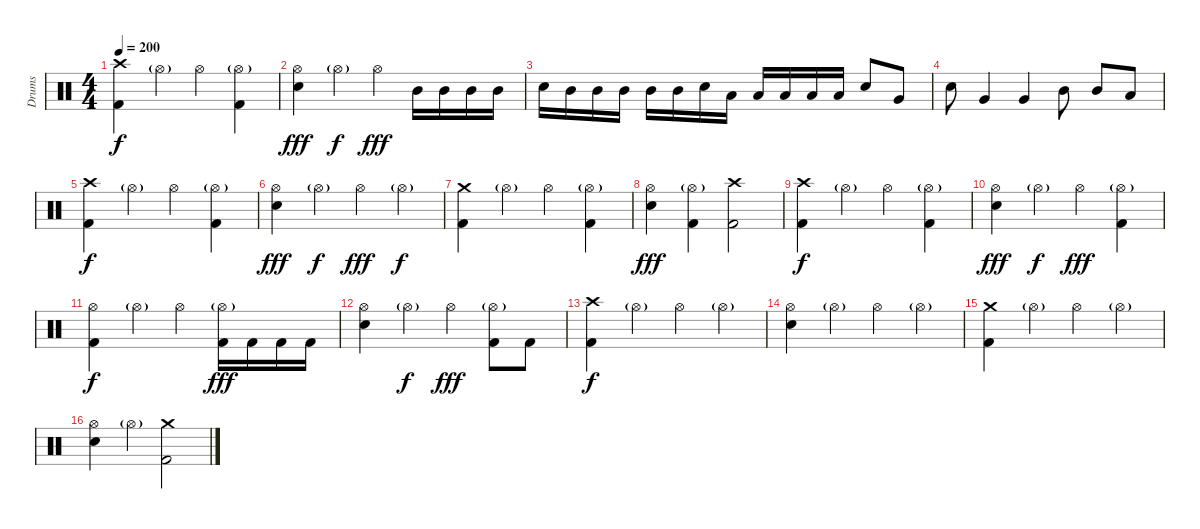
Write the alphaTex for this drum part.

\track ("Drums" "Drums") {instrument percussion}
\staff {score}
\articulation defaults
\ts (4 4)
\tempo 200
\clef neutral
\ks c
("Crash high (hit)" "Kick (hit) 2").4{dy f} "Hi-Hat (open)"{g}.4 "Hi-Hat (open)".4 ("Hi-Hat (open)"{g} "Kick (hit) 2").4 |
("Hi-Hat (open)" "Electric Snare (hit)").4{dy fff} "Hi-Hat (open)"{g}.4{dy f} "Hi-Hat (open)".4{dy fff} "Mid Tom (hit)".16 "Mid Tom (hit)".16 "Mid Tom (hit)".16 "Mid Tom (hit)".16 |
"Electric Snare (hit)".16 "Mid Tom (hit)".16 "Mid Tom (hit)".16 "Mid Tom (hit)".16 "Mid Tom (hit)".16 "Mid Tom (hit)".16 "Electric Snare (hit)".16 "Low Tom (hit)".16 "Low Tom (hit)".16 "Low Tom (hit)".16 "Low Tom (hit)".16 "Low Tom (hit)".16 "Electric Snare (hit)".8 "Very Low Tom (hit)".8 |
"Electric Snare (hit)".8 "Very Low Tom (hit)".4 "Very Low Tom (hit)".4 "Mid Tom (hit)".8 "Mid Tom (hit)".8 "Low Tom (hit)".8 |
("Crash high (hit)" "Kick (hit) 2").4{dy f} "Hi-Hat (open)"{g}.4 "Hi-Hat (open)".4 ("Hi-Hat (open)"{g} "Kick (hit) 2").4 |
("Hi-Hat (open)" "Electric Snare (hit)").4{dy fff} "Hi-Hat (open)"{g}.4{dy f} "Hi-Hat (open)".4{dy fff} "Hi-Hat (open)"{g}.4{dy f} |
("Crash medium (hit)" "Kick (hit) 2").4 "Hi-Hat (open)"{g}.4 "Hi-Hat (open)".4 ("Hi-Hat (open)"{g} "Kick (hit) 2").4 |
("Hi-Hat (open)" "Electric Snare (hit)").4{dy fff} ("Hi-Hat (open)"{g} "Kick (hit) 2").4 ("Crash high (hit)" "Kick (hit) 2").2 |
("Crash high (hit)" "Kick (hit) 2").4{dy f} "Hi-Hat (open)"{g}.4 "Hi-Hat (open)".4 ("Hi-Hat (open)"{g} "Kick (hit) 2").4 |
("Hi-Hat (open)" "Electric Snare (hit)").4{dy fff} "Hi-Hat (open)"{g}.4{dy f} "Hi-Hat (open)".4{dy fff} ("Hi-Hat (open)"{g} "Kick (hit) 2").4 |
("Hi-Hat (open)" "Kick (hit) 2").4{dy f} "Hi-Hat (open)"{g}.4 "Hi-Hat (open)".4 ("Hi-Hat (open)"{g} "Kick (hit) 2").16{dy fff} "Kick (hit) 2".16 "Kick (hit) 2".16 "Kick (hit) 2".16 |
("Hi-Hat (open)" "Electric Snare (hit)").4 "Hi-Hat (open)"{g}.4{dy f} "Hi-Hat (open)".4{dy fff} ("Hi-Hat (open)"{g} "Kick (hit) 2").8 "Kick (hit) 2".8 |
("Crash high (hit)" "Kick (hit) 2").4{dy f} "Hi-Hat (open)"{g}.4 "Hi-Hat (open)".4 "Hi-Hat (open)"{g}.4 |
("Hi-Hat (open)" "Electric Snare (hit)").4 "Hi-Hat (open)"{g}.4 "Hi-Hat (open)".4 "Hi-Hat (open)"{g}.4 |
("Crash medium (hit)" "Kick (hit) 2").4 "Hi-Hat (open)"{g}.4 "Hi-Hat (open)".4 "Hi-Hat (open)"{g}.4 |
("Hi-Hat (open)" "Electric Snare (hit)").4 "Hi-Hat (open)"{g}.4 ("Crash medium (hit)" "Kick (hit) 2").2
